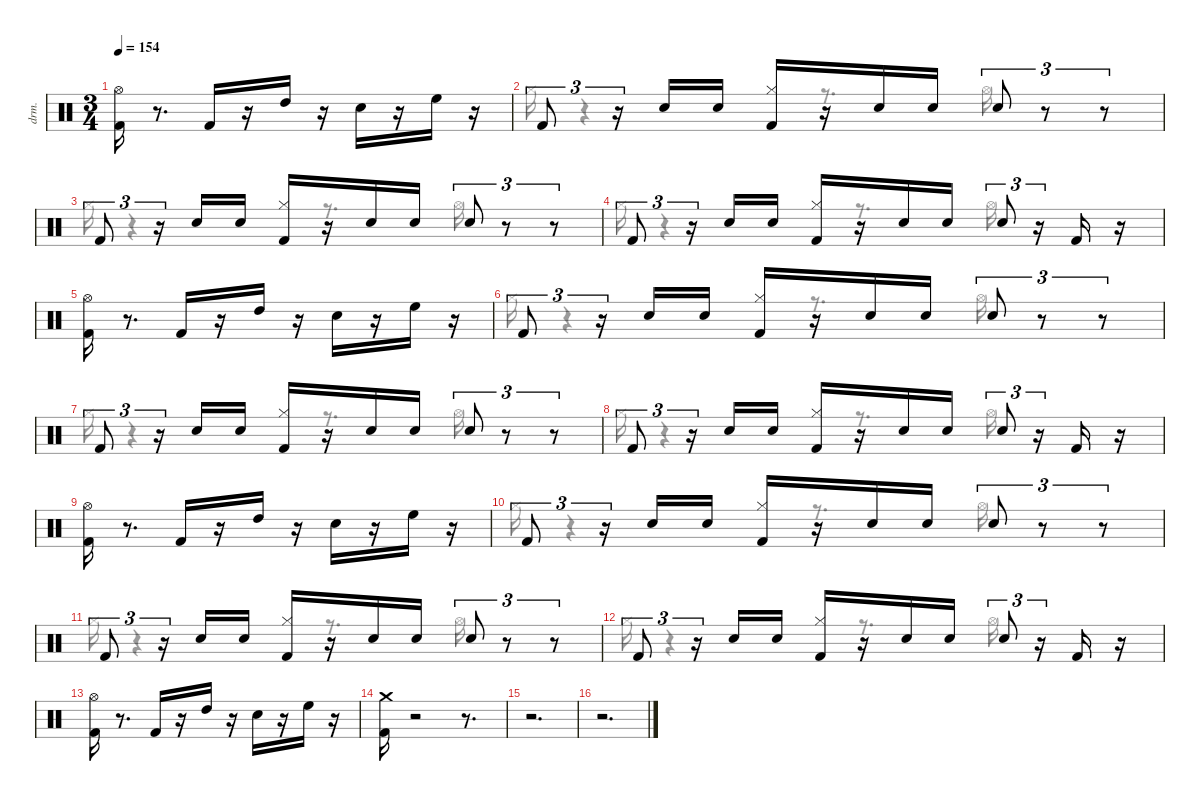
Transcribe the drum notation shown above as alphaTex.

\defaultSystemsLayout 4
\hideDynamics
\bracketExtendMode nobrackets
\otherSystemsTrackNameOrientation horizontal
\track ("EZdrummer 3" "drm.") {instrument percussion}
\staff {score}
\articulation defaults
\voice
\ts (3 4)
\tempo 154
\clef neutral
\ks aminor
("Kick (hit) 2" "Hi-Hat (open)"{acc #}).16{dy fff beam Down} r.8{d beam Down} "Kick (hit) 2".16{dy ff beam Up} r.16{beam Up} "High Tom (hit)".16{beam Up} r.16{beam Up} "Snare (hit) 2".16{beam Down} r.16{beam Down} "High Floor Tom (hit)".16{beam Down} r.16{beam Down} |
"Kick (hit) 2".8{tu (3 2) beam Up} r.16{tu (3 2) beam Up} "Snare (hit) 2".16{dy ppp beam Up} "Snare (hit) 2".16{beam Up} ("Kick (hit) 2" "Hi-Hat (closed)"{acc #}).16{dy mf beam Up} r.16{beam Up} "Snare (hit) 2".16{dy ppp beam Up} "Snare (hit) 2".16{beam Up} "Snare (hit) 2".8{tu (3 2) dy ff beam Up} r.8{tu (3 2) beam Up} r.8{tu (3 2) beam Up} |
"Kick (hit) 2".8{tu (3 2) beam Up} r.16{tu (3 2) beam Up} "Snare (hit) 2".16{dy ppp beam Up} "Snare (hit) 2".16{beam Up} ("Kick (hit) 2" "Hi-Hat (closed)"{acc #}).16{dy f beam Up} r.16{beam Up} "Snare (hit) 2".16{dy ppp beam Up} "Snare (hit) 2".16{beam Up} "Snare (hit) 2".8{tu (3 2) dy ff beam Up} r.8{tu (3 2) beam Up} r.8{tu (3 2) beam Up} |
"Kick (hit) 2".8{tu (3 2) beam Up} r.16{tu (3 2) beam Up} "Snare (hit) 2".16{dy ppp beam Up} "Snare (hit) 2".16{beam Up} ("Kick (hit) 2" "Hi-Hat (closed)"{acc #}).16{dy f beam Up} r.16{beam Up} "Snare (hit) 2".16{dy ppp beam Up} "Snare (hit) 2".16{beam Up} "Snare (hit) 2".8{tu (3 2) dy ff beam Up} r.16{tu (3 2) beam Up} "Kick (hit) 2".16{dy pp beam Up} r.16{beam Up} |
("Kick (hit) 2" "Hi-Hat (open)"{acc #}).16{dy fff beam Down} r.8{d beam Down} "Kick (hit) 2".16{dy ff beam Up} r.16{beam Up} "High Tom (hit)".16{beam Up} r.16{beam Up} "Snare (hit) 2".16{beam Down} r.16{beam Down} "High Floor Tom (hit)".16{beam Down} r.16{beam Down} |
"Kick (hit) 2".8{tu (3 2) beam Up} r.16{tu (3 2) beam Up} "Snare (hit) 2".16{dy ppp beam Up} "Snare (hit) 2".16{beam Up} ("Kick (hit) 2" "Hi-Hat (closed)"{acc #}).16{dy mf beam Up} r.16{beam Up} "Snare (hit) 2".16{dy ppp beam Up} "Snare (hit) 2".16{beam Up} "Snare (hit) 2".8{tu (3 2) dy ff beam Up} r.8{tu (3 2) beam Up} r.8{tu (3 2) beam Up} |
"Kick (hit) 2".8{tu (3 2) beam Up} r.16{tu (3 2) beam Up} "Snare (hit) 2".16{dy ppp beam Up} "Snare (hit) 2".16{beam Up} ("Kick (hit) 2" "Hi-Hat (closed)"{acc #}).16{dy f beam Up} r.16{beam Up} "Snare (hit) 2".16{dy ppp beam Up} "Snare (hit) 2".16{beam Up} "Snare (hit) 2".8{tu (3 2) dy ff beam Up} r.8{tu (3 2) beam Up} r.8{tu (3 2) beam Up} |
"Kick (hit) 2".8{tu (3 2) beam Up} r.16{tu (3 2) beam Up} "Snare (hit) 2".16{dy ppp beam Up} "Snare (hit) 2".16{beam Up} ("Kick (hit) 2" "Hi-Hat (closed)"{acc #}).16{dy f beam Up} r.16{beam Up} "Snare (hit) 2".16{dy ppp beam Up} "Snare (hit) 2".16{beam Up} "Snare (hit) 2".8{tu (3 2) dy ff beam Up} r.16{tu (3 2) beam Up} "Kick (hit) 2".16{dy pp beam Up} r.16{beam Up} |
("Kick (hit) 2" "Hi-Hat (open)"{acc #}).16{dy fff beam Down} r.8{d beam Down} "Kick (hit) 2".16{dy ff beam Up} r.16{beam Up} "High Tom (hit)".16{beam Up} r.16{beam Up} "Snare (hit) 2".16{beam Down} r.16{beam Down} "High Floor Tom (hit)".16{beam Down} r.16{beam Down} |
"Kick (hit) 2".8{tu (3 2) beam Up} r.16{tu (3 2) beam Up} "Snare (hit) 2".16{dy ppp beam Up} "Snare (hit) 2".16{beam Up} ("Kick (hit) 2" "Hi-Hat (closed)"{acc #}).16{dy mf beam Up} r.16{beam Up} "Snare (hit) 2".16{dy ppp beam Up} "Snare (hit) 2".16{beam Up} "Snare (hit) 2".8{tu (3 2) dy ff beam Up} r.8{tu (3 2) beam Up} r.8{tu (3 2) beam Up} |
"Kick (hit) 2".8{tu (3 2) beam Up} r.16{tu (3 2) beam Up} "Snare (hit) 2".16{dy ppp beam Up} "Snare (hit) 2".16{beam Up} ("Kick (hit) 2" "Hi-Hat (closed)"{acc #}).16{dy f beam Up} r.16{beam Up} "Snare (hit) 2".16{dy ppp beam Up} "Snare (hit) 2".16{beam Up} "Snare (hit) 2".8{tu (3 2) dy ff beam Up} r.8{tu (3 2) beam Up} r.8{tu (3 2) beam Up} |
"Kick (hit) 2".8{tu (3 2) beam Up} r.16{tu (3 2) beam Up} "Snare (hit) 2".16{dy ppp beam Up} "Snare (hit) 2".16{beam Up} ("Kick (hit) 2" "Hi-Hat (closed)"{acc #}).16{dy f beam Up} r.16{beam Up} "Snare (hit) 2".16{dy ppp beam Up} "Snare (hit) 2".16{beam Up} "Snare (hit) 2".8{tu (3 2) dy ff beam Up} r.16{tu (3 2) beam Up} "Kick (hit) 2".16{dy pp beam Up} r.16{beam Up} |
("Kick (hit) 2" "Hi-Hat (open)"{acc #}).16{dy fff beam Down} r.8{d beam Down} "Kick (hit) 2".16{dy ff beam Up} r.16{beam Up} "High Tom (hit)".16{beam Up} r.16{beam Up} "Snare (hit) 2".16{beam Down} r.16{beam Down} "High Floor Tom (hit)".16{beam Down} r.16{beam Down} |
("Kick (hit) 2" "Crash medium (hit)").16{dy f beam Down} r.2{beam Down} r.8{d beam Down} |
r.2{d beam Down} |
r.2{d beam Down}
\voice
\clef neutral
\ottava regular
\simile none
\ks aminor
|
"Hi-Hat (closed)"{acc #}.16{beam Down} r.4{beam Down} r.8{d beam Down} "Hi-Hat (open)"{acc #}.16{beam Down} |
"Hi-Hat (closed)"{acc #}.16{beam Down} r.4{beam Down} r.8{d beam Down} "Hi-Hat (open)"{acc #}.16{beam Down} |
"Hi-Hat (closed)"{acc #}.16{beam Down} r.4{beam Down} r.8{d beam Down} "Hi-Hat (open)"{acc #}.16{beam Down} |
|
"Hi-Hat (closed)"{acc #}.16{beam Down} r.4{beam Down} r.8{d beam Down} "Hi-Hat (open)"{acc #}.16{beam Down} |
"Hi-Hat (closed)"{acc #}.16{beam Down} r.4{beam Down} r.8{d beam Down} "Hi-Hat (open)"{acc #}.16{beam Down} |
"Hi-Hat (closed)"{acc #}.16{beam Down} r.4{beam Down} r.8{d beam Down} "Hi-Hat (open)"{acc #}.16{beam Down} |
|
"Hi-Hat (closed)"{acc #}.16{beam Down} r.4{beam Down} r.8{d beam Down} "Hi-Hat (open)"{acc #}.16{beam Down} |
"Hi-Hat (closed)"{acc #}.16{beam Down} r.4{beam Down} r.8{d beam Down} "Hi-Hat (open)"{acc #}.16{beam Down} |
"Hi-Hat (closed)"{acc #}.16{beam Down} r.4{beam Down} r.8{d beam Down} "Hi-Hat (open)"{acc #}.16{beam Down} |
|
|
|
